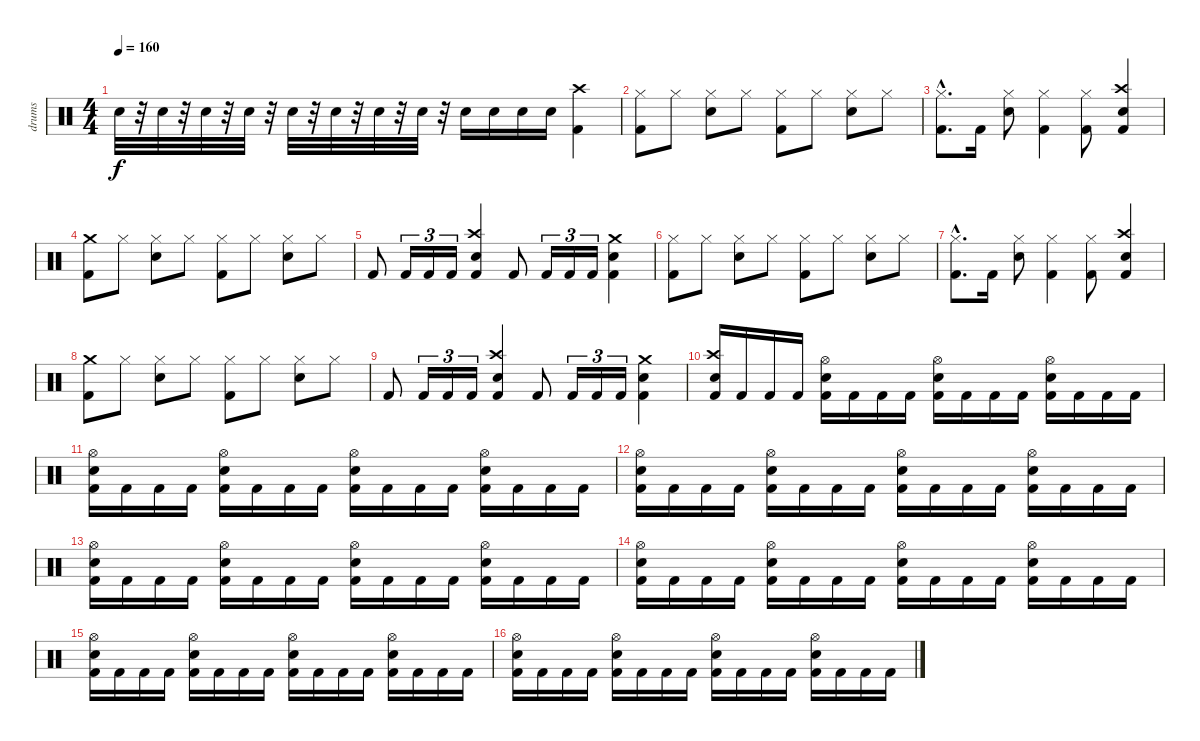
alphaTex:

\track ("drums" "drums") {instrument percussion}
\staff {score}
\articulation defaults
\ts (4 4)
\tempo 160
\clef neutral
\ks c "Snare (hit) 2".32{dy f}
r.32 "Snare (hit) 2".32 r.32 "Snare (hit) 2".32 r.32 "Snare (hit) 2".32 r.32 "Snare (hit) 2".32 r.32 "Snare (hit) 2".32 r.32 "Snare (hit) 2".32 r.32 "Snare (hit) 2".32 r.32 "Snare (hit) 2".16 "Snare (hit) 2".16 "Snare (hit) 2".16 "Snare (hit) 2".16 ("Crash high (hit)" "Kick (hit) 2").4 |
("Hi-Hat (closed)" "Kick (hit) 2").8 "Hi-Hat (closed)".8 ("Hi-Hat (closed)" "Snare (hit) 2").8 "Hi-Hat (closed)".8 ("Hi-Hat (closed)" "Kick (hit) 2").8 "Hi-Hat (closed)".8 ("Hi-Hat (closed)" "Snare (hit) 2").8 "Hi-Hat (closed)".8 |
("Hi-Hat (closed)"{hac} "Kick (hit) 2"{hac}).8{d} "Kick (hit) 2".16 ("Hi-Hat (closed)" "Snare (hit) 2").8 ("Hi-Hat (closed)" "Kick (hit) 2").4 ("Hi-Hat (closed)" "Kick (hit) 2").8 ("Crash high (hit)" "Snare (hit) 2" "Kick (hit) 2").4 |
("Crash medium (hit)" "Kick (hit) 2").8 "Hi-Hat (closed)".8 ("Hi-Hat (closed)" "Snare (hit) 2").8 "Hi-Hat (closed)".8 ("Hi-Hat (closed)" "Kick (hit) 2").8 "Hi-Hat (closed)".8 ("Hi-Hat (closed)" "Snare (hit) 2").8 "Hi-Hat (closed)".8 |
"Kick (hit) 2".8 "Kick (hit) 2".16{tu (3 2)} "Kick (hit) 2".16{tu (3 2)} "Kick (hit) 2".16{tu (3 2)} ("Crash high (hit)" "Snare (hit) 2" "Kick (hit) 2").4 "Kick (hit) 2".8 "Kick (hit) 2".16{tu (3 2)} "Kick (hit) 2".16{tu (3 2)} "Kick (hit) 2".16{tu (3 2)} ("Crash medium (hit)" "Snare (hit) 2" "Kick (hit) 2").4 |
("Hi-Hat (closed)" "Kick (hit) 2").8 "Hi-Hat (closed)".8 ("Hi-Hat (closed)" "Snare (hit) 2").8 "Hi-Hat (closed)".8 ("Hi-Hat (closed)" "Kick (hit) 2").8 "Hi-Hat (closed)".8 ("Hi-Hat (closed)" "Snare (hit) 2").8 "Hi-Hat (closed)".8 |
("Hi-Hat (closed)"{hac} "Kick (hit) 2"{hac}).8{d} "Kick (hit) 2".16 ("Hi-Hat (closed)" "Snare (hit) 2").8 ("Hi-Hat (closed)" "Kick (hit) 2").4 ("Hi-Hat (closed)" "Kick (hit) 2").8 ("Crash high (hit)" "Snare (hit) 2" "Kick (hit) 2").4 |
("Crash medium (hit)" "Kick (hit) 2").8 "Hi-Hat (closed)".8 ("Hi-Hat (closed)" "Snare (hit) 2").8 "Hi-Hat (closed)".8 ("Hi-Hat (closed)" "Kick (hit) 2").8 "Hi-Hat (closed)".8 ("Hi-Hat (closed)" "Snare (hit) 2").8 "Hi-Hat (closed)".8 |
"Kick (hit) 2".8 "Kick (hit) 2".16{tu (3 2)} "Kick (hit) 2".16{tu (3 2)} "Kick (hit) 2".16{tu (3 2)} ("Crash high (hit)" "Snare (hit) 2" "Kick (hit) 2").4 "Kick (hit) 2".8 "Kick (hit) 2".16{tu (3 2)} "Kick (hit) 2".16{tu (3 2)} "Kick (hit) 2".16{tu (3 2)} ("Crash medium (hit)" "Snare (hit) 2" "Kick (hit) 2").4 |
("Crash high (hit)" "Snare (hit) 2" "Kick (hit) 2").16 "Kick (hit) 2".16 "Kick (hit) 2".16 "Kick (hit) 2".16 ("Hi-Hat (open)" "Snare (hit) 2" "Kick (hit) 2").16 "Kick (hit) 2".16 "Kick (hit) 2".16 "Kick (hit) 2".16 ("Hi-Hat (open)" "Snare (hit) 2" "Kick (hit) 2").16 "Kick (hit) 2".16 "Kick (hit) 2".16 "Kick (hit) 2".16 ("Hi-Hat (open)" "Snare (hit) 2" "Kick (hit) 2").16 "Kick (hit) 2".16 "Kick (hit) 2".16 "Kick (hit) 2".16 |
("Hi-Hat (open)" "Snare (hit) 2" "Kick (hit) 2").16 "Kick (hit) 2".16 "Kick (hit) 2".16 "Kick (hit) 2".16 ("Hi-Hat (open)" "Snare (hit) 2" "Kick (hit) 2").16 "Kick (hit) 2".16 "Kick (hit) 2".16 "Kick (hit) 2".16 ("Hi-Hat (open)" "Snare (hit) 2" "Kick (hit) 2").16 "Kick (hit) 2".16 "Kick (hit) 2".16 "Kick (hit) 2".16 ("Hi-Hat (open)" "Snare (hit) 2" "Kick (hit) 2").16 "Kick (hit) 2".16 "Kick (hit) 2".16 "Kick (hit) 2".16 |
("Hi-Hat (open)" "Snare (hit) 2" "Kick (hit) 2").16 "Kick (hit) 2".16 "Kick (hit) 2".16 "Kick (hit) 2".16 ("Hi-Hat (open)" "Snare (hit) 2" "Kick (hit) 2").16 "Kick (hit) 2".16 "Kick (hit) 2".16 "Kick (hit) 2".16 ("Hi-Hat (open)" "Snare (hit) 2" "Kick (hit) 2").16 "Kick (hit) 2".16 "Kick (hit) 2".16 "Kick (hit) 2".16 ("Hi-Hat (open)" "Snare (hit) 2" "Kick (hit) 2").16 "Kick (hit) 2".16 "Kick (hit) 2".16 "Kick (hit) 2".16 |
("Hi-Hat (open)" "Snare (hit) 2" "Kick (hit) 2").16 "Kick (hit) 2".16 "Kick (hit) 2".16 "Kick (hit) 2".16 ("Hi-Hat (open)" "Snare (hit) 2" "Kick (hit) 2").16 "Kick (hit) 2".16 "Kick (hit) 2".16 "Kick (hit) 2".16 ("Hi-Hat (open)" "Snare (hit) 2" "Kick (hit) 2").16 "Kick (hit) 2".16 "Kick (hit) 2".16 "Kick (hit) 2".16 ("Hi-Hat (open)" "Snare (hit) 2" "Kick (hit) 2").16 "Kick (hit) 2".16 "Kick (hit) 2".16 "Kick (hit) 2".16 |
("Hi-Hat (open)" "Snare (hit) 2" "Kick (hit) 2").16 "Kick (hit) 2".16 "Kick (hit) 2".16 "Kick (hit) 2".16 ("Hi-Hat (open)" "Snare (hit) 2" "Kick (hit) 2").16 "Kick (hit) 2".16 "Kick (hit) 2".16 "Kick (hit) 2".16 ("Hi-Hat (open)" "Snare (hit) 2" "Kick (hit) 2").16 "Kick (hit) 2".16 "Kick (hit) 2".16 "Kick (hit) 2".16 ("Hi-Hat (open)" "Snare (hit) 2" "Kick (hit) 2").16 "Kick (hit) 2".16 "Kick (hit) 2".16 "Kick (hit) 2".16 |
("Hi-Hat (open)" "Snare (hit) 2" "Kick (hit) 2").16 "Kick (hit) 2".16 "Kick (hit) 2".16 "Kick (hit) 2".16 ("Hi-Hat (open)" "Snare (hit) 2" "Kick (hit) 2").16 "Kick (hit) 2".16 "Kick (hit) 2".16 "Kick (hit) 2".16 ("Hi-Hat (open)" "Snare (hit) 2" "Kick (hit) 2").16 "Kick (hit) 2".16 "Kick (hit) 2".16 "Kick (hit) 2".16 ("Hi-Hat (open)" "Snare (hit) 2" "Kick (hit) 2").16 "Kick (hit) 2".16 "Kick (hit) 2".16 "Kick (hit) 2".16 |
("Hi-Hat (open)" "Snare (hit) 2" "Kick (hit) 2").16 "Kick (hit) 2".16 "Kick (hit) 2".16 "Kick (hit) 2".16 ("Hi-Hat (open)" "Snare (hit) 2" "Kick (hit) 2").16 "Kick (hit) 2".16 "Kick (hit) 2".16 "Kick (hit) 2".16 ("Hi-Hat (open)" "Snare (hit) 2" "Kick (hit) 2").16 "Kick (hit) 2".16 "Kick (hit) 2".16 "Kick (hit) 2".16 ("Hi-Hat (open)" "Snare (hit) 2" "Kick (hit) 2").16 "Kick (hit) 2".16 "Kick (hit) 2".16 "Kick (hit) 2".16
